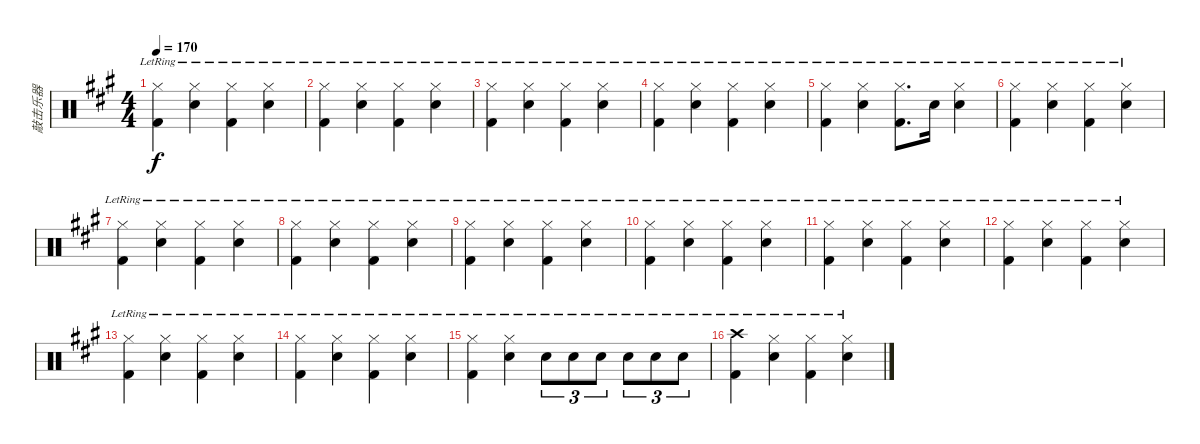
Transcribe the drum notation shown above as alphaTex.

\track ("敲击乐器" "敲击乐器") {instrument percussion}
\staff {score}
\articulation defaults
\ts (4 4)
\tempo 170
\clef neutral
\ks a
("Hi-Hat (closed)"{lr} "Kick (hit) 2"{lr}).4{dy f} ("Hi-Hat (closed)"{lr} "Snare (hit) 2"{lr}).4 ("Hi-Hat (closed)"{lr} "Kick (hit) 2"{lr}).4 ("Hi-Hat (closed)"{lr} "Snare (hit) 2"{lr}).4 |
("Hi-Hat (closed)"{lr} "Kick (hit) 2"{lr}).4 ("Hi-Hat (closed)"{lr} "Snare (hit) 2"{lr}).4 ("Hi-Hat (closed)"{lr} "Kick (hit) 2"{lr}).4 ("Hi-Hat (closed)"{lr} "Snare (hit) 2"{lr}).4 |
("Hi-Hat (closed)"{lr} "Kick (hit) 2"{lr}).4 ("Hi-Hat (closed)"{lr} "Snare (hit) 2"{lr}).4 ("Hi-Hat (closed)"{lr} "Kick (hit) 2"{lr}).4 ("Hi-Hat (closed)"{lr} "Snare (hit) 2"{lr}).4 |
("Hi-Hat (closed)"{lr} "Kick (hit) 2"{lr}).4 ("Hi-Hat (closed)"{lr} "Snare (hit) 2"{lr}).4 ("Hi-Hat (closed)"{lr} "Kick (hit) 2"{lr}).4 ("Hi-Hat (closed)"{lr} "Snare (hit) 2"{lr}).4 |
("Hi-Hat (closed)"{lr} "Kick (hit) 2"{lr}).4 ("Hi-Hat (closed)"{lr} "Snare (hit) 2"{lr}).4 ("Hi-Hat (closed)"{lr} "Kick (hit) 2"{lr}).8{d} "Snare (hit) 2"{lr}.16 ("Hi-Hat (closed)"{lr} "Snare (hit) 2"{lr}).4 |
("Hi-Hat (closed)"{lr} "Kick (hit) 2"{lr}).4 ("Hi-Hat (closed)"{lr} "Snare (hit) 2"{lr}).4 ("Hi-Hat (closed)"{lr} "Kick (hit) 2"{lr}).4 ("Hi-Hat (closed)"{lr} "Snare (hit) 2"{lr}).4 |
("Hi-Hat (closed)"{lr} "Kick (hit) 2"{lr}).4 ("Hi-Hat (closed)"{lr} "Snare (hit) 2"{lr}).4 ("Hi-Hat (closed)"{lr} "Kick (hit) 2"{lr}).4 ("Hi-Hat (closed)"{lr} "Snare (hit) 2"{lr}).4 |
("Hi-Hat (closed)"{lr} "Kick (hit) 2"{lr}).4 ("Hi-Hat (closed)"{lr} "Snare (hit) 2"{lr}).4 ("Hi-Hat (closed)"{lr} "Kick (hit) 2"{lr}).4 ("Hi-Hat (closed)"{lr} "Snare (hit) 2"{lr}).4 |
("Hi-Hat (closed)"{lr} "Kick (hit) 2"{lr}).4 ("Hi-Hat (closed)"{lr} "Snare (hit) 2"{lr}).4 ("Hi-Hat (closed)"{lr} "Kick (hit) 2"{lr}).4 ("Hi-Hat (closed)"{lr} "Snare (hit) 2"{lr}).4 |
("Hi-Hat (closed)"{lr} "Kick (hit) 2"{lr}).4 ("Hi-Hat (closed)"{lr} "Snare (hit) 2"{lr}).4 ("Hi-Hat (closed)"{lr} "Kick (hit) 2"{lr}).4 ("Hi-Hat (closed)"{lr} "Snare (hit) 2"{lr}).4 |
("Hi-Hat (closed)"{lr} "Kick (hit) 2"{lr}).4 ("Hi-Hat (closed)"{lr} "Snare (hit) 2"{lr}).4 ("Hi-Hat (closed)"{lr} "Kick (hit) 2"{lr}).4 ("Hi-Hat (closed)"{lr} "Snare (hit) 2"{lr}).4 |
("Hi-Hat (closed)"{lr} "Kick (hit) 2"{lr}).4 ("Hi-Hat (closed)"{lr} "Snare (hit) 2"{lr}).4 ("Hi-Hat (closed)"{lr} "Kick (hit) 2"{lr}).4 ("Hi-Hat (closed)"{lr} "Snare (hit) 2"{lr}).4 |
("Hi-Hat (closed)"{lr} "Kick (hit) 2"{lr}).4 ("Hi-Hat (closed)"{lr} "Snare (hit) 2"{lr}).4 ("Hi-Hat (closed)"{lr} "Kick (hit) 2"{lr}).4 ("Hi-Hat (closed)"{lr} "Snare (hit) 2"{lr}).4 |
("Hi-Hat (closed)"{lr} "Kick (hit) 2"{lr}).4 ("Hi-Hat (closed)"{lr} "Snare (hit) 2"{lr}).4 ("Hi-Hat (closed)"{lr} "Kick (hit) 2"{lr}).4 ("Hi-Hat (closed)"{lr} "Snare (hit) 2"{lr}).4 |
("Hi-Hat (closed)"{lr} "Kick (hit) 2"{lr}).4 ("Hi-Hat (closed)"{lr} "Snare (hit) 2"{lr}).4 "Snare (hit) 2"{lr}.8{tu (3 2)} "Snare (hit) 2"{lr}.8{tu (3 2)} "Snare (hit) 2"{lr}.8{tu (3 2)} "Snare (hit) 2"{lr}.8{tu (3 2)} "Snare (hit) 2"{lr}.8{tu (3 2)} "Snare (hit) 2"{lr}.8{tu (3 2)} |
("Crash high (hit)"{lr} "Kick (hit) 2"{lr}).4 ("Hi-Hat (closed)"{lr} "Snare (hit) 2"{lr}).4 ("Hi-Hat (closed)"{lr} "Kick (hit) 2"{lr}).4 ("Hi-Hat (closed)"{lr} "Snare (hit) 2"{lr}).4
